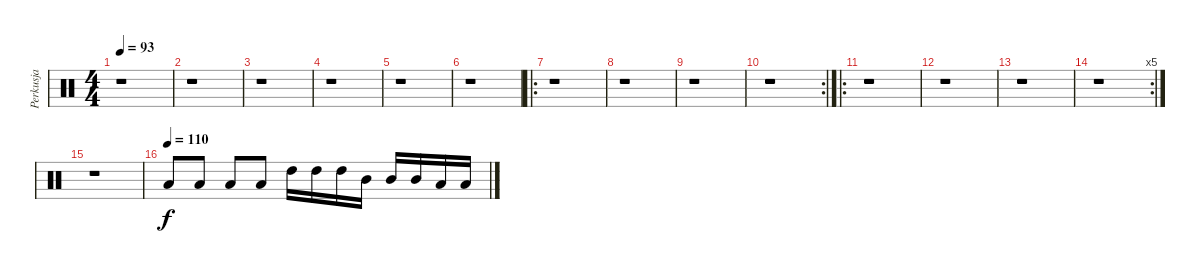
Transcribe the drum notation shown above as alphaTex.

\track ("Perkusja" "Perkusja") {instrument percussion}
\staff {score}
\articulation defaults
\ts (4 4)
\tempo 93
\clef neutral
\ks c
r.1{dy f} |
r.1 |
r.1 |
r.1 |
r.1 |
r.1 |
\ro
r.1 |
r.1 |
r.1 |
\rc 2
r.1 |
\ro
r.1 |
r.1 |
r.1 |
\rc 5
r.1 |
r.1 |
\tempo (110)
"Low Tom (hit)".8 "Low Tom (hit)".8 "Low Tom (hit)".8 "Low Tom (hit)".8 "High Tom (hit)".16 "High Tom (hit)".16 "High Tom (hit)".16 "Mid Tom (hit)".16 "Mid Tom (hit)".16 "Mid Tom (hit)".16 "Low Tom (hit)".16 "Low Tom (hit)".16
